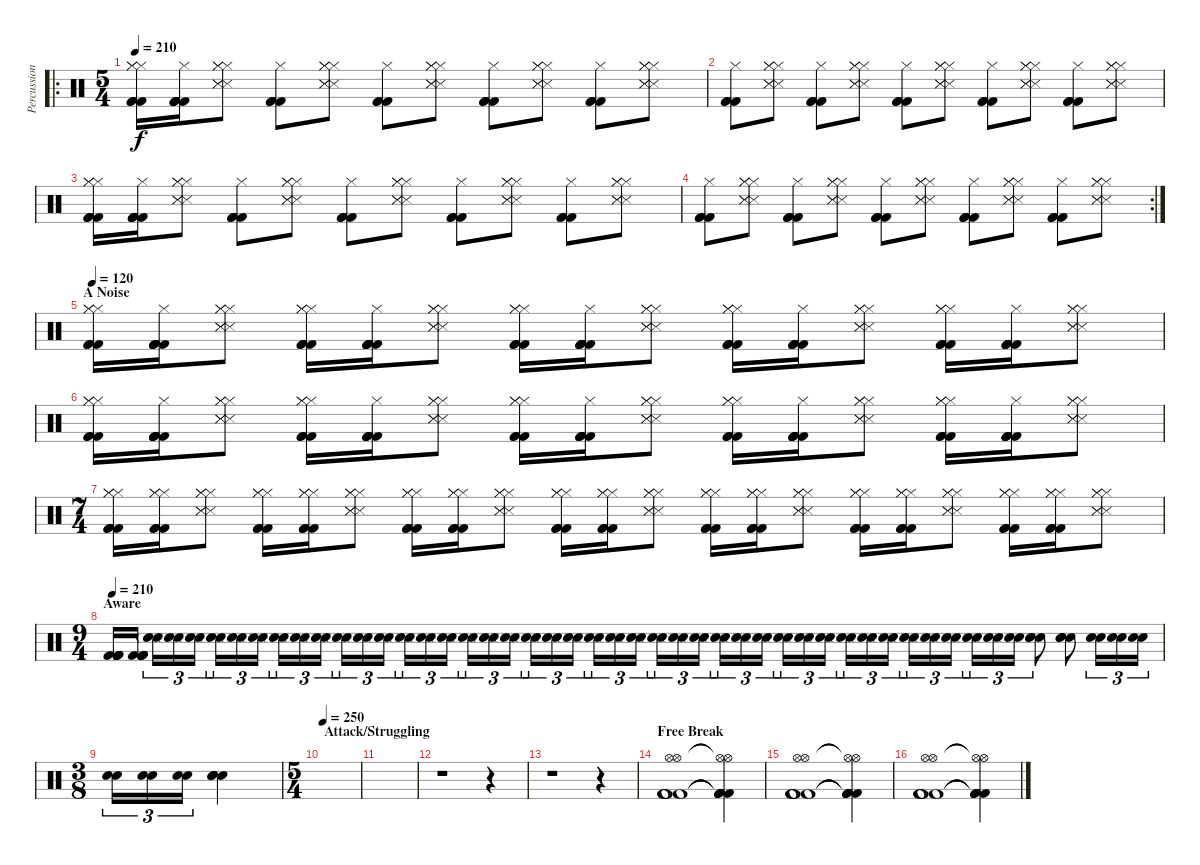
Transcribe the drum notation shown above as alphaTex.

\track ("Percussion" "Percussion") {instrument percussion}
\staff {score}
\articulation defaults
\ro
\ts (5 4)
\tempo 210
\clef neutral
\ks c
("Hi-Hat (closed)" "Hi-Hat (closed)" "Hi-Hat (closed)" "Kick (hit) 2" "Kick (hit) 2" "Kick (hit) 2").16{dy f} ("Hi-Hat (closed)" "Kick (hit) 2" "Kick (hit) 2" "Kick (hit) 2" "Kick (hit) 2" "Kick (hit) 2").16 ("Hi-Hat (closed)" "Hi-Hat (closed)" "Hi-Hat (closed)" "Snare (side stick) 3" "Snare (side stick) 3" "Snare (side stick) 3").8 ("Hi-Hat (closed)" "Kick (hit) 2" "Kick (hit) 2" "Kick (hit) 2").8 ("Hi-Hat (closed)" "Hi-Hat (closed)" "Hi-Hat (closed)" "Snare (side stick) 3" "Snare (side stick) 3" "Snare (side stick) 3").8 ("Hi-Hat (closed)" "Kick (hit) 2" "Kick (hit) 2" "Kick (hit) 2").8 ("Hi-Hat (closed)" "Hi-Hat (closed)" "Hi-Hat (closed)" "Snare (side stick) 3" "Snare (side stick) 3" "Snare (side stick) 3").8 ("Hi-Hat (closed)" "Kick (hit) 2" "Kick (hit) 2" "Kick (hit) 2").8 ("Hi-Hat (closed)" "Hi-Hat (closed)" "Hi-Hat (closed)" "Snare (side stick) 3" "Snare (side stick) 3" "Snare (side stick) 3").8 ("Hi-Hat (closed)" "Kick (hit) 2" "Kick (hit) 2" "Kick (hit) 2").8 ("Hi-Hat (closed)" "Hi-Hat (closed)" "Hi-Hat (closed)" "Snare (side stick) 3" "Snare (side stick) 3" "Snare (side stick) 3").8 |
("Hi-Hat (closed)" "Kick (hit) 2" "Kick (hit) 2" "Kick (hit) 2").8 ("Hi-Hat (closed)" "Hi-Hat (closed)" "Hi-Hat (closed)" "Snare (side stick) 3" "Snare (side stick) 3" "Snare (side stick) 3").8 ("Hi-Hat (closed)" "Kick (hit) 2" "Kick (hit) 2" "Kick (hit) 2").8 ("Hi-Hat (closed)" "Hi-Hat (closed)" "Hi-Hat (closed)" "Snare (side stick) 3" "Snare (side stick) 3" "Snare (side stick) 3").8 ("Hi-Hat (closed)" "Kick (hit) 2" "Kick (hit) 2" "Kick (hit) 2").8 ("Hi-Hat (closed)" "Hi-Hat (closed)" "Hi-Hat (closed)" "Snare (side stick) 3" "Snare (side stick) 3" "Snare (side stick) 3").8 ("Hi-Hat (closed)" "Kick (hit) 2" "Kick (hit) 2" "Kick (hit) 2").8 ("Hi-Hat (closed)" "Hi-Hat (closed)" "Hi-Hat (closed)" "Snare (side stick) 3" "Snare (side stick) 3" "Snare (side stick) 3").8 ("Hi-Hat (closed)" "Kick (hit) 2" "Kick (hit) 2" "Kick (hit) 2").8 ("Hi-Hat (closed)" "Hi-Hat (closed)" "Hi-Hat (closed)" "Snare (side stick) 3" "Snare (side stick) 3" "Snare (side stick) 3").8 |
("Hi-Hat (closed)" "Hi-Hat (closed)" "Hi-Hat (closed)" "Kick (hit) 2" "Kick (hit) 2" "Kick (hit) 2").16 ("Hi-Hat (closed)" "Kick (hit) 2" "Kick (hit) 2" "Kick (hit) 2" "Kick (hit) 2" "Kick (hit) 2").16 ("Hi-Hat (closed)" "Hi-Hat (closed)" "Hi-Hat (closed)" "Snare (side stick) 3" "Snare (side stick) 3" "Snare (side stick) 3").8 ("Hi-Hat (closed)" "Kick (hit) 2" "Kick (hit) 2" "Kick (hit) 2").8 ("Hi-Hat (closed)" "Hi-Hat (closed)" "Hi-Hat (closed)" "Snare (side stick) 3" "Snare (side stick) 3" "Snare (side stick) 3").8 ("Hi-Hat (closed)" "Kick (hit) 2" "Kick (hit) 2" "Kick (hit) 2").8 ("Hi-Hat (closed)" "Hi-Hat (closed)" "Hi-Hat (closed)" "Snare (side stick) 3" "Snare (side stick) 3" "Snare (side stick) 3").8 ("Hi-Hat (closed)" "Kick (hit) 2" "Kick (hit) 2" "Kick (hit) 2").8 ("Hi-Hat (closed)" "Hi-Hat (closed)" "Hi-Hat (closed)" "Snare (side stick) 3" "Snare (side stick) 3" "Snare (side stick) 3").8 ("Hi-Hat (closed)" "Kick (hit) 2" "Kick (hit) 2" "Kick (hit) 2").8 ("Hi-Hat (closed)" "Hi-Hat (closed)" "Hi-Hat (closed)" "Snare (side stick) 3" "Snare (side stick) 3" "Snare (side stick) 3").8 |
\rc 2
("Hi-Hat (closed)" "Kick (hit) 2" "Kick (hit) 2" "Kick (hit) 2").8 ("Hi-Hat (closed)" "Hi-Hat (closed)" "Hi-Hat (closed)" "Snare (side stick) 3" "Snare (side stick) 3" "Snare (side stick) 3").8 ("Hi-Hat (closed)" "Kick (hit) 2" "Kick (hit) 2" "Kick (hit) 2").8 ("Hi-Hat (closed)" "Hi-Hat (closed)" "Hi-Hat (closed)" "Snare (side stick) 3" "Snare (side stick) 3" "Snare (side stick) 3").8 ("Hi-Hat (closed)" "Kick (hit) 2" "Kick (hit) 2" "Kick (hit) 2").8 ("Hi-Hat (closed)" "Hi-Hat (closed)" "Hi-Hat (closed)" "Snare (side stick) 3" "Snare (side stick) 3" "Snare (side stick) 3").8 ("Hi-Hat (closed)" "Kick (hit) 2" "Kick (hit) 2" "Kick (hit) 2").8 ("Hi-Hat (closed)" "Hi-Hat (closed)" "Hi-Hat (closed)" "Snare (side stick) 3" "Snare (side stick) 3" "Snare (side stick) 3").8 ("Hi-Hat (closed)" "Kick (hit) 2" "Kick (hit) 2" "Kick (hit) 2").8 ("Hi-Hat (closed)" "Hi-Hat (closed)" "Hi-Hat (closed)" "Snare (side stick) 3" "Snare (side stick) 3" "Snare (side stick) 3").8 |
\section ("" "A Noise")
\tempo 120
("Hi-Hat (closed)" "Hi-Hat (closed)" "Hi-Hat (closed)" "Kick (hit) 2" "Kick (hit) 2" "Kick (hit) 2").16 ("Hi-Hat (closed)" "Kick (hit) 2" "Kick (hit) 2" "Kick (hit) 2" "Kick (hit) 2" "Kick (hit) 2").16 ("Hi-Hat (closed)" "Hi-Hat (closed)" "Hi-Hat (closed)" "Snare (side stick) 3" "Snare (side stick) 3" "Snare (side stick) 3").8 ("Hi-Hat (closed)" "Hi-Hat (closed)" "Hi-Hat (closed)" "Kick (hit) 2" "Kick (hit) 2" "Kick (hit) 2").16 ("Hi-Hat (closed)" "Kick (hit) 2" "Kick (hit) 2" "Kick (hit) 2" "Kick (hit) 2" "Kick (hit) 2").16 ("Hi-Hat (closed)" "Hi-Hat (closed)" "Hi-Hat (closed)" "Snare (side stick) 3" "Snare (side stick) 3" "Snare (side stick) 3").8 ("Hi-Hat (closed)" "Hi-Hat (closed)" "Hi-Hat (closed)" "Kick (hit) 2" "Kick (hit) 2" "Kick (hit) 2").16 ("Hi-Hat (closed)" "Kick (hit) 2" "Kick (hit) 2" "Kick (hit) 2" "Kick (hit) 2" "Kick (hit) 2").16 ("Hi-Hat (closed)" "Hi-Hat (closed)" "Hi-Hat (closed)" "Snare (side stick) 3" "Snare (side stick) 3" "Snare (side stick) 3").8 ("Hi-Hat (closed)" "Hi-Hat (closed)" "Hi-Hat (closed)" "Kick (hit) 2" "Kick (hit) 2" "Kick (hit) 2").16 ("Hi-Hat (closed)" "Kick (hit) 2" "Kick (hit) 2" "Kick (hit) 2" "Kick (hit) 2" "Kick (hit) 2").16 ("Hi-Hat (closed)" "Hi-Hat (closed)" "Hi-Hat (closed)" "Snare (side stick) 3" "Snare (side stick) 3" "Snare (side stick) 3").8 ("Hi-Hat (closed)" "Hi-Hat (closed)" "Hi-Hat (closed)" "Kick (hit) 2" "Kick (hit) 2" "Kick (hit) 2").16 ("Hi-Hat (closed)" "Kick (hit) 2" "Kick (hit) 2" "Kick (hit) 2" "Kick (hit) 2" "Kick (hit) 2").16 ("Hi-Hat (closed)" "Hi-Hat (closed)" "Hi-Hat (closed)" "Snare (side stick) 3" "Snare (side stick) 3" "Snare (side stick) 3").8 |
("Hi-Hat (closed)" "Hi-Hat (closed)" "Hi-Hat (closed)" "Kick (hit) 2" "Kick (hit) 2" "Kick (hit) 2").16 ("Hi-Hat (closed)" "Kick (hit) 2" "Kick (hit) 2" "Kick (hit) 2" "Kick (hit) 2" "Kick (hit) 2").16 ("Hi-Hat (closed)" "Hi-Hat (closed)" "Hi-Hat (closed)" "Snare (side stick) 3" "Snare (side stick) 3" "Snare (side stick) 3").8 ("Hi-Hat (closed)" "Hi-Hat (closed)" "Hi-Hat (closed)" "Kick (hit) 2" "Kick (hit) 2" "Kick (hit) 2").16 ("Hi-Hat (closed)" "Kick (hit) 2" "Kick (hit) 2" "Kick (hit) 2" "Kick (hit) 2" "Kick (hit) 2").16 ("Hi-Hat (closed)" "Hi-Hat (closed)" "Hi-Hat (closed)" "Snare (side stick) 3" "Snare (side stick) 3" "Snare (side stick) 3").8 ("Hi-Hat (closed)" "Hi-Hat (closed)" "Hi-Hat (closed)" "Kick (hit) 2" "Kick (hit) 2" "Kick (hit) 2").16 ("Hi-Hat (closed)" "Kick (hit) 2" "Kick (hit) 2" "Kick (hit) 2" "Kick (hit) 2" "Kick (hit) 2").16 ("Hi-Hat (closed)" "Hi-Hat (closed)" "Hi-Hat (closed)" "Snare (side stick) 3" "Snare (side stick) 3" "Snare (side stick) 3").8 ("Hi-Hat (closed)" "Hi-Hat (closed)" "Hi-Hat (closed)" "Kick (hit) 2" "Kick (hit) 2" "Kick (hit) 2").16 ("Hi-Hat (closed)" "Kick (hit) 2" "Kick (hit) 2" "Kick (hit) 2" "Kick (hit) 2" "Kick (hit) 2").16 ("Hi-Hat (closed)" "Hi-Hat (closed)" "Hi-Hat (closed)" "Snare (side stick) 3" "Snare (side stick) 3" "Snare (side stick) 3").8 ("Hi-Hat (closed)" "Hi-Hat (closed)" "Hi-Hat (closed)" "Kick (hit) 2" "Kick (hit) 2" "Kick (hit) 2").16 ("Hi-Hat (closed)" "Kick (hit) 2" "Kick (hit) 2" "Kick (hit) 2" "Kick (hit) 2" "Kick (hit) 2").16 ("Hi-Hat (closed)" "Hi-Hat (closed)" "Hi-Hat (closed)" "Snare (side stick) 3" "Snare (side stick) 3" "Snare (side stick) 3").8 |
\ts (7 4)
("Hi-Hat (closed)" "Hi-Hat (closed)" "Hi-Hat (closed)" "Kick (hit) 2" "Kick (hit) 2" "Kick (hit) 2").16 ("Hi-Hat (closed)" "Hi-Hat (closed)" "Hi-Hat (closed)" "Kick (hit) 2" "Kick (hit) 2" "Kick (hit) 2").16 ("Hi-Hat (closed)" "Hi-Hat (closed)" "Hi-Hat (closed)" "Snare (side stick) 3" "Snare (side stick) 3" "Snare (side stick) 3").8 ("Hi-Hat (closed)" "Hi-Hat (closed)" "Hi-Hat (closed)" "Kick (hit) 2" "Kick (hit) 2" "Kick (hit) 2").16 ("Hi-Hat (closed)" "Hi-Hat (closed)" "Hi-Hat (closed)" "Kick (hit) 2" "Kick (hit) 2" "Kick (hit) 2").16 ("Hi-Hat (closed)" "Hi-Hat (closed)" "Hi-Hat (closed)" "Snare (side stick) 3" "Snare (side stick) 3" "Snare (side stick) 3").8 ("Hi-Hat (closed)" "Hi-Hat (closed)" "Hi-Hat (closed)" "Kick (hit) 2" "Kick (hit) 2" "Kick (hit) 2").16 ("Hi-Hat (closed)" "Hi-Hat (closed)" "Hi-Hat (closed)" "Kick (hit) 2" "Kick (hit) 2" "Kick (hit) 2").16 ("Hi-Hat (closed)" "Hi-Hat (closed)" "Hi-Hat (closed)" "Snare (side stick) 3" "Snare (side stick) 3" "Snare (side stick) 3").8 ("Hi-Hat (closed)" "Hi-Hat (closed)" "Hi-Hat (closed)" "Kick (hit) 2" "Kick (hit) 2" "Kick (hit) 2").16 ("Hi-Hat (closed)" "Hi-Hat (closed)" "Hi-Hat (closed)" "Kick (hit) 2" "Kick (hit) 2" "Kick (hit) 2").16 ("Hi-Hat (closed)" "Hi-Hat (closed)" "Hi-Hat (closed)" "Snare (side stick) 3" "Snare (side stick) 3" "Snare (side stick) 3").8 ("Hi-Hat (closed)" "Hi-Hat (closed)" "Hi-Hat (closed)" "Kick (hit) 2" "Kick (hit) 2" "Kick (hit) 2").16 ("Hi-Hat (closed)" "Hi-Hat (closed)" "Hi-Hat (closed)" "Kick (hit) 2" "Kick (hit) 2" "Kick (hit) 2").16 ("Hi-Hat (closed)" "Hi-Hat (closed)" "Hi-Hat (closed)" "Snare (side stick) 3" "Snare (side stick) 3" "Snare (side stick) 3").8 ("Hi-Hat (closed)" "Hi-Hat (closed)" "Hi-Hat (closed)" "Kick (hit) 2" "Kick (hit) 2" "Kick (hit) 2").16 ("Hi-Hat (closed)" "Hi-Hat (closed)" "Hi-Hat (closed)" "Kick (hit) 2" "Kick (hit) 2" "Kick (hit) 2").16 ("Hi-Hat (closed)" "Hi-Hat (closed)" "Hi-Hat (closed)" "Snare (side stick) 3" "Snare (side stick) 3" "Snare (side stick) 3").8 ("Hi-Hat (closed)" "Hi-Hat (closed)" "Hi-Hat (closed)" "Kick (hit) 2" "Kick (hit) 2" "Kick (hit) 2").16 ("Hi-Hat (closed)" "Hi-Hat (closed)" "Hi-Hat (closed)" "Kick (hit) 2" "Kick (hit) 2" "Kick (hit) 2").16 ("Hi-Hat (closed)" "Hi-Hat (closed)" "Hi-Hat (closed)" "Snare (side stick) 3" "Snare (side stick) 3" "Snare (side stick) 3").8 |
\ts (9 4)
\section ("" "Aware")
\tempo 210
("Kick (hit) 2" "Kick (hit) 2" "Kick (hit) 2" "Kick (hit) 2" "Kick (hit) 2" "Kick (hit) 2").16 ("Kick (hit) 2" "Kick (hit) 2" "Kick (hit) 2" "Kick (hit) 2" "Kick (hit) 2" "Kick (hit) 2").16 ("Snare (hit) 2"{g} "Snare (hit) 2"{g}).16{tu (3 2)} ("Snare (hit) 2"{g} "Snare (hit) 2"{g}).16{tu (3 2)} ("Snare (hit) 2"{g} "Snare (hit) 2"{g}).16{tu (3 2)} ("Snare (hit) 2"{g} "Snare (hit) 2"{g}).16{tu (3 2)} ("Snare (hit) 2"{g} "Snare (hit) 2"{g}).16{tu (3 2)} ("Snare (hit) 2"{g} "Snare (hit) 2"{g}).16{tu (3 2)} ("Snare (hit) 2"{g} "Snare (hit) 2"{g}).16{tu (3 2)} ("Snare (hit) 2"{g} "Snare (hit) 2"{g}).16{tu (3 2)} ("Snare (hit) 2"{g} "Snare (hit) 2"{g}).16{tu (3 2)} ("Snare (hit) 2"{g} "Snare (hit) 2"{g}).16{tu (3 2)} ("Snare (hit) 2"{g} "Snare (hit) 2"{g}).16{tu (3 2)} ("Snare (hit) 2"{g} "Snare (hit) 2"{g}).16{tu (3 2)} ("Snare (hit) 2"{g} "Snare (hit) 2"{g}).16{tu (3 2)} ("Snare (hit) 2"{g} "Snare (hit) 2"{g}).16{tu (3 2)} ("Snare (hit) 2"{g} "Snare (hit) 2"{g}).16{tu (3 2)} ("Snare (hit) 2"{g} "Snare (hit) 2"{g}).16{tu (3 2)} ("Snare (hit) 2"{g} "Snare (hit) 2"{g}).16{tu (3 2)} ("Snare (hit) 2"{g} "Snare (hit) 2"{g}).16{tu (3 2)} ("Snare (hit) 2"{g} "Snare (hit) 2"{g}).16{tu (3 2)} ("Snare (hit) 2"{g} "Snare (hit) 2"{g}).16{tu (3 2)} ("Snare (hit) 2"{g} "Snare (hit) 2"{g}).16{tu (3 2)} ("Snare (hit) 2"{g} "Snare (hit) 2"{g}).16{tu (3 2)} ("Snare (hit) 2"{g} "Snare (hit) 2"{g}).16{tu (3 2)} ("Snare (hit) 2"{g} "Snare (hit) 2"{g}).16{tu (3 2)} ("Snare (hit) 2"{g} "Snare (hit) 2"{g}).16{tu (3 2)} ("Snare (hit) 2"{g} "Snare (hit) 2"{g}).16{tu (3 2)} ("Snare (hit) 2"{g} "Snare (hit) 2"{g}).16{tu (3 2)} ("Snare (hit) 2"{g} "Snare (hit) 2"{g}).16{tu (3 2)} ("Snare (hit) 2"{g} "Snare (hit) 2"{g}).16{tu (3 2)} ("Snare (hit) 2"{g} "Snare (hit) 2"{g}).16{tu (3 2)} ("Snare (hit) 2"{g} "Snare (hit) 2"{g}).16{tu (3 2)} ("Snare (hit) 2"{g} "Snare (hit) 2"{g}).16{tu (3 2)} ("Snare (hit) 2"{g} "Snare (hit) 2"{g}).16{tu (3 2)} ("Snare (hit) 2"{g} "Snare (hit) 2"{g}).16{tu (3 2)} ("Snare (hit) 2"{g} "Snare (hit) 2"{g}).16{tu (3 2)} ("Snare (hit) 2"{g} "Snare (hit) 2"{g}).16{tu (3 2)} ("Snare (hit) 2"{g} "Snare (hit) 2"{g}).16{tu (3 2)} ("Snare (hit) 2"{g} "Snare (hit) 2"{g}).16{tu (3 2)} ("Snare (hit) 2"{g} "Snare (hit) 2"{g}).16{tu (3 2)} ("Snare (hit) 2"{g} "Snare (hit) 2"{g}).16{tu (3 2)} ("Snare (hit) 2"{g} "Snare (hit) 2"{g}).16{tu (3 2)} ("Snare (hit) 2"{g} "Snare (hit) 2"{g}).16{tu (3 2)} ("Snare (hit) 2" "Snare (hit) 2" "Snare (hit) 2").8 ("Snare (hit) 2" "Snare (hit) 2" "Snare (hit) 2").8 ("Snare (hit) 2" "Snare (hit) 2").16{tu (3 2)} ("Snare (hit) 2" "Snare (hit) 2").16{tu (3 2)} ("Snare (hit) 2" "Snare (hit) 2").16{tu (3 2)} |
\ts (3 8)
("Snare (hit) 2" "Snare (hit) 2").16{tu (3 2)} ("Snare (hit) 2" "Snare (hit) 2").16{tu (3 2)} ("Snare (hit) 2" "Snare (hit) 2").16{tu (3 2)} ("Snare (hit) 2" "Snare (hit) 2" "Snare (hit) 2" "Snare (hit) 2").4 |
\ts (5 4)
\section ("" "Attack/Struggling")
\tempo 250
|
|
r.1 r.4 |
r.1 r.4 |
\section ("" "Free Break")
("Hi-Hat (open)" "Hi-Hat (open)" "Kick (hit) 2" "Kick (hit) 2" "Kick (hit) 2" "Kick (hit) 2").1 ("Hi-Hat (open)"{t} "Hi-Hat (open)"{t} "Kick (hit) 2"{t} "Kick (hit) 2"{t} "Kick (hit) 2"{t} "Kick (hit) 2"{t}).4 |
("Hi-Hat (open)" "Hi-Hat (open)" "Kick (hit) 2" "Kick (hit) 2" "Kick (hit) 2" "Kick (hit) 2").1 ("Hi-Hat (open)"{t} "Hi-Hat (open)"{t} "Kick (hit) 2"{t} "Kick (hit) 2"{t} "Kick (hit) 2"{t} "Kick (hit) 2"{t}).4 |
("Hi-Hat (open)" "Hi-Hat (open)" "Kick (hit) 2" "Kick (hit) 2" "Kick (hit) 2" "Kick (hit) 2").1 ("Hi-Hat (open)"{t} "Hi-Hat (open)"{t} "Kick (hit) 2"{t} "Kick (hit) 2"{t} "Kick (hit) 2"{t} "Kick (hit) 2"{t}).4
